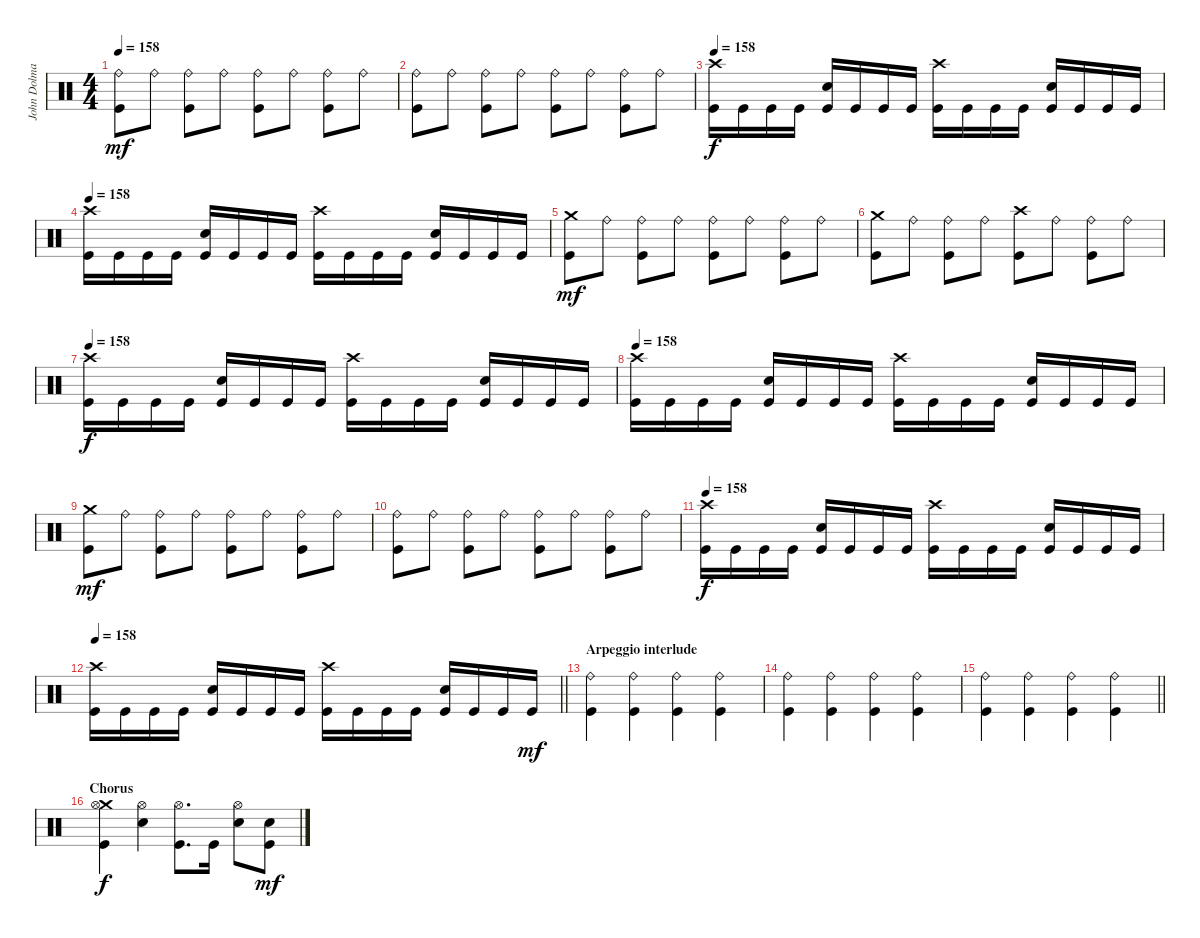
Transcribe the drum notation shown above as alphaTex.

\track ("John Dolmayan (drums)" "John Dolma") {instrument percussion}
\staff {score}
\articulation defaults
\ts (4 4)
\tempo 158
\clef neutral
\ks c
("Ride (bell)" "Kick (hit)").8{dy mf} "Ride (bell)".8 ("Ride (bell)" "Kick (hit)").8 "Ride (bell)".8 ("Ride (bell)" "Kick (hit)").8 "Ride (bell)".8 ("Ride (bell)" "Kick (hit)").8 "Ride (bell)".8 |
("Ride (bell)" "Kick (hit)").8 "Ride (bell)".8 ("Ride (bell)" "Kick (hit)").8 "Ride (bell)".8 ("Ride (bell)" "Kick (hit)").8 "Ride (bell)".8 ("Ride (bell)" "Kick (hit)").8 "Ride (bell)".8 |
\tempo 158
("Crash high (hit)" "Kick (hit)").16{dy f} "Kick (hit)".16 "Kick (hit)".16 "Kick (hit)".16 ("Snare (hit) 2" "Kick (hit)").16 "Kick (hit)".16 "Kick (hit)".16 "Kick (hit)".16 ("Crash high (hit)" "Kick (hit)").16 "Kick (hit)".16 "Kick (hit)".16 "Kick (hit)".16 ("Snare (hit) 2" "Kick (hit)").16 "Kick (hit)".16 "Kick (hit)".16 "Kick (hit)".16 |
\tempo 158
("Crash high (hit)" "Kick (hit)").16 "Kick (hit)".16 "Kick (hit)".16 "Kick (hit)".16 ("Snare (hit) 2" "Kick (hit)").16 "Kick (hit)".16 "Kick (hit)".16 "Kick (hit)".16 ("Crash high (hit)" "Kick (hit)").16 "Kick (hit)".16 "Kick (hit)".16 "Kick (hit)".16 ("Snare (hit) 2" "Kick (hit)").16 "Kick (hit)".16 "Kick (hit)".16 "Kick (hit)".16 |
("Crash medium (hit)" "Kick (hit)").8{dy mf} "Ride (bell)".8 ("Ride (bell)" "Kick (hit)").8 "Ride (bell)".8 ("Ride (bell)" "Kick (hit)").8 "Ride (bell)".8 ("Ride (bell)" "Kick (hit)").8 "Ride (bell)".8 |
("Crash medium (hit)" "Kick (hit)").8 "Ride (bell)".8 ("Ride (bell)" "Kick (hit)").8 "Ride (bell)".8 ("Crash high (hit)" "Kick (hit)").8 "Ride (bell)".8 ("Ride (bell)" "Kick (hit)").8 "Ride (bell)".8 |
\tempo 158
("Crash high (hit)" "Kick (hit)").16{dy f} "Kick (hit)".16 "Kick (hit)".16 "Kick (hit)".16 ("Snare (hit) 2" "Kick (hit)").16 "Kick (hit)".16 "Kick (hit)".16 "Kick (hit)".16 ("Crash high (hit)" "Kick (hit)").16 "Kick (hit)".16 "Kick (hit)".16 "Kick (hit)".16 ("Snare (hit) 2" "Kick (hit)").16 "Kick (hit)".16 "Kick (hit)".16 "Kick (hit)".16 |
\tempo 158
("Crash high (hit)" "Kick (hit)").16 "Kick (hit)".16 "Kick (hit)".16 "Kick (hit)".16 ("Snare (hit) 2" "Kick (hit)").16 "Kick (hit)".16 "Kick (hit)".16 "Kick (hit)".16 ("Crash high (hit)" "Kick (hit)").16 "Kick (hit)".16 "Kick (hit)".16 "Kick (hit)".16 ("Snare (hit) 2" "Kick (hit)").16 "Kick (hit)".16 "Kick (hit)".16 "Kick (hit)".16 |
("Crash medium (hit)" "Kick (hit)").8{dy mf} "Ride (bell)".8 ("Ride (bell)" "Kick (hit)").8 "Ride (bell)".8 ("Ride (bell)" "Kick (hit)").8 "Ride (bell)".8 ("Ride (bell)" "Kick (hit)").8 "Ride (bell)".8 |
("Ride (bell)" "Kick (hit)").8 "Ride (bell)".8 ("Ride (bell)" "Kick (hit)").8 "Ride (bell)".8 ("Ride (bell)" "Kick (hit)").8 "Ride (bell)".8 ("Ride (bell)" "Kick (hit)").8 "Ride (bell)".8 |
\tempo 158
("Crash high (hit)" "Kick (hit)").16{dy f} "Kick (hit)".16 "Kick (hit)".16 "Kick (hit)".16 ("Snare (hit) 2" "Kick (hit)").16 "Kick (hit)".16 "Kick (hit)".16 "Kick (hit)".16 ("Crash high (hit)" "Kick (hit)").16 "Kick (hit)".16 "Kick (hit)".16 "Kick (hit)".16 ("Snare (hit) 2" "Kick (hit)").16 "Kick (hit)".16 "Kick (hit)".16 "Kick (hit)".16 |
\tempo 158
\barLineRight lightlight
("Crash high (hit)" "Kick (hit)").16 "Kick (hit)".16 "Kick (hit)".16 "Kick (hit)".16 ("Snare (hit) 2" "Kick (hit)").16 "Kick (hit)".16 "Kick (hit)".16 "Kick (hit)".16 ("Crash high (hit)" "Kick (hit)").16 "Kick (hit)".16 "Kick (hit)".16 "Kick (hit)".16 ("Snare (hit) 2" "Kick (hit)").16 "Kick (hit)".16 "Kick (hit)".16 "Kick (hit)".16{dy mf} |
\section ("" "Arpeggio interlude")
("Ride (bell)" "Kick (hit)").4 ("Ride (bell)" "Kick (hit)").4 ("Ride (bell)" "Kick (hit)").4 ("Ride (bell)" "Kick (hit)").4 |
("Ride (bell)" "Kick (hit)").4 ("Ride (bell)" "Kick (hit)").4 ("Ride (bell)" "Kick (hit)").4 ("Ride (bell)" "Kick (hit)").4 |
\barLineRight lightlight
("Ride (bell)" "Kick (hit)").4 ("Ride (bell)" "Kick (hit)").4 ("Ride (bell)" "Kick (hit)").4 ("Ride (bell)" "Kick (hit)").4 |
\section ("" "Chorus")
("Crash medium (hit)" "Hi-Hat (open)" "Kick (hit)").4{dy f} ("Hi-Hat (open)" "Snare (hit) 2").4 ("Hi-Hat (open)" "Kick (hit)").8{d} "Kick (hit)".16 ("Hi-Hat (open)" "Snare (hit) 2").8 ("Snare (hit) 2" "Kick (hit)").8{dy mf}
